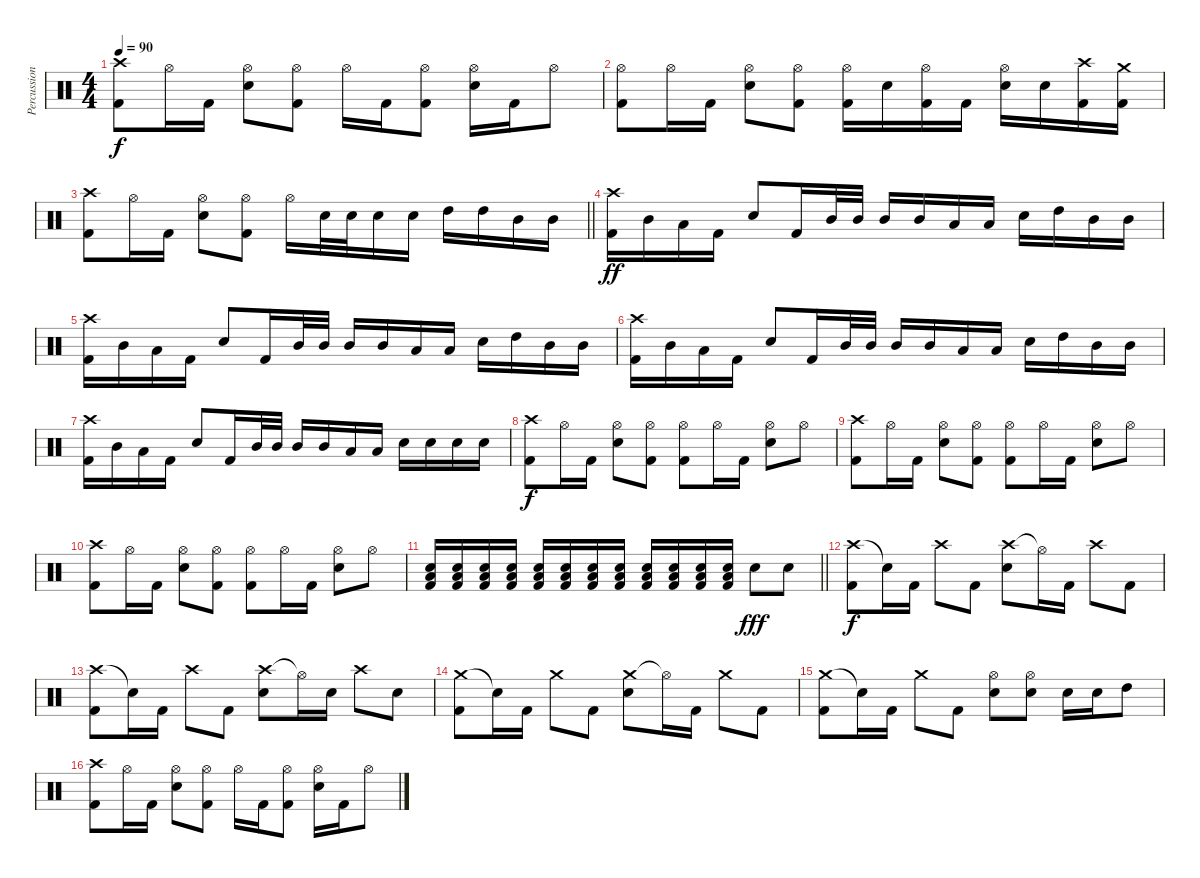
\track ("Percussion" "Percussion") {instrument percussion}
\staff {score}
\articulation defaults
\ts (4 4)
\tempo 90
\clef neutral
\ks c
("Crash high (hit)" "Kick (hit) 2").8{dy f} "Hi-Hat (open)".16 "Kick (hit) 2".16 ("Hi-Hat (open)" "Snare (hit) 2").8 ("Hi-Hat (open)" "Kick (hit) 2").8 "Hi-Hat (open)".16 "Kick (hit) 2".16 ("Hi-Hat (open)" "Kick (hit) 2").8 ("Hi-Hat (open)" "Snare (hit) 2").16 "Kick (hit) 2".16 "Hi-Hat (open)".8 |
("Hi-Hat (open)" "Kick (hit) 2").8 "Hi-Hat (open)".16 "Kick (hit) 2".16 ("Hi-Hat (open)" "Snare (hit) 2").8 ("Hi-Hat (open)" "Kick (hit) 2").8 ("Hi-Hat (open)" "Kick (hit) 2").16 "Snare (hit) 2".16 ("Hi-Hat (open)" "Kick (hit) 2").16 "Kick (hit) 2".16 ("Hi-Hat (open)" "Snare (hit) 2").16 "Snare (hit) 2".16 ("Crash high (hit)" "Kick (hit) 2").16 ("Crash medium (hit)" "Kick (hit) 2").16 |
\barLineRight lightlight
("Crash high (hit)" "Kick (hit) 2").8 "Hi-Hat (open)".16 "Kick (hit) 2".16 ("Hi-Hat (open)" "Snare (hit) 2").8 ("Hi-Hat (open)" "Kick (hit) 2").8 "Hi-Hat (open)".16 "Snare (hit) 2".32 "Snare (hit) 2".32 "Snare (hit) 2".16 "Snare (hit) 2".16 "High Tom (hit)".16 "High Tom (hit)".16 "Mid Tom (hit)".16 "Mid Tom (hit)".16 |
("Crash high (hit)" "Kick (hit) 2").16{dy ff} "Mid Tom (hit)".16 "Low Floor Tom (hit)".16 "Kick (hit) 2".16 "Snare (hit) 2".8 "Kick (hit) 2".16 "Mid Tom (hit)".32 "Mid Tom (hit)".32 "Mid Tom (hit)".16 "Mid Tom (hit)".16 "Low Floor Tom (hit)".16 "Low Floor Tom (hit)".16 "Snare (hit) 2".16 "High Tom (hit)".16 "Mid Tom (hit)".16 "Mid Tom (hit)".16 |
("Crash high (hit)" "Kick (hit) 2").16 "Mid Tom (hit)".16 "Low Floor Tom (hit)".16 "Kick (hit) 2".16 "Snare (hit) 2".8 "Kick (hit) 2".16 "Mid Tom (hit)".32 "Mid Tom (hit)".32 "Mid Tom (hit)".16 "Mid Tom (hit)".16 "Low Floor Tom (hit)".16 "Low Floor Tom (hit)".16 "Snare (hit) 2".16 "High Tom (hit)".16 "Mid Tom (hit)".16 "Mid Tom (hit)".16 |
("Crash high (hit)" "Kick (hit) 2").16 "Mid Tom (hit)".16 "Low Floor Tom (hit)".16 "Kick (hit) 2".16 "Snare (hit) 2".8 "Kick (hit) 2".16 "Mid Tom (hit)".32 "Mid Tom (hit)".32 "Mid Tom (hit)".16 "Mid Tom (hit)".16 "Low Floor Tom (hit)".16 "Low Floor Tom (hit)".16 "Snare (hit) 2".16 "High Tom (hit)".16 "Mid Tom (hit)".16 "Mid Tom (hit)".16 |
("Crash high (hit)" "Kick (hit) 2").16 "Mid Tom (hit)".16 "Low Floor Tom (hit)".16 "Kick (hit) 2".16 "Snare (hit) 2".8 "Kick (hit) 2".16 "Mid Tom (hit)".32 "Mid Tom (hit)".32 "Mid Tom (hit)".16 "Mid Tom (hit)".16 "Low Floor Tom (hit)".16 "Low Floor Tom (hit)".16 "Snare (hit) 2".16 "Snare (hit) 2".16 "Snare (hit) 2".16 "Snare (hit) 2".16 |
("Crash high (hit)" "Kick (hit) 2").8{dy f} "Hi-Hat (open)".16 "Kick (hit) 2".16 ("Hi-Hat (open)" "Snare (hit) 2").8 ("Hi-Hat (open)" "Kick (hit) 2").8 ("Hi-Hat (open)" "Kick (hit) 2").8 "Hi-Hat (open)".16 "Kick (hit) 2".16 ("Hi-Hat (open)" "Snare (hit) 2").8 "Hi-Hat (open)".8 |
("Crash high (hit)" "Kick (hit) 2").8 "Hi-Hat (open)".16 "Kick (hit) 2".16 ("Hi-Hat (open)" "Snare (hit) 2").8 ("Hi-Hat (open)" "Kick (hit) 2").8 ("Hi-Hat (open)" "Kick (hit) 2").8 "Hi-Hat (open)".16 "Kick (hit) 2".16 ("Hi-Hat (open)" "Snare (hit) 2").8 "Hi-Hat (open)".8 |
("Crash high (hit)" "Kick (hit) 2").8 "Hi-Hat (open)".16 "Kick (hit) 2".16 ("Hi-Hat (open)" "Snare (hit) 2").8 ("Hi-Hat (open)" "Kick (hit) 2").8 ("Hi-Hat (open)" "Kick (hit) 2").8 "Hi-Hat (open)".16 "Kick (hit) 2".16 ("Hi-Hat (open)" "Snare (hit) 2").8 "Hi-Hat (open)".8 |
\barLineRight lightlight
("Snare (hit) 2" "Low Floor Tom (hit)" "Kick (hit) 2").16 ("Snare (hit) 2" "Low Floor Tom (hit)" "Kick (hit) 2").16 ("Snare (hit) 2" "Low Floor Tom (hit)" "Kick (hit) 2").16 ("Snare (hit) 2" "Low Floor Tom (hit)" "Kick (hit) 2").16 ("Snare (hit) 2" "Low Floor Tom (hit)" "Kick (hit) 2").16 ("Snare (hit) 2" "Low Floor Tom (hit)" "Kick (hit) 2").16 ("Snare (hit) 2" "Low Floor Tom (hit)" "Kick (hit) 2").16 ("Snare (hit) 2" "Low Floor Tom (hit)" "Kick (hit) 2").16 ("Snare (hit) 2" "Low Floor Tom (hit)" "Kick (hit) 2").16 ("Snare (hit) 2" "Low Floor Tom (hit)" "Kick (hit) 2").16 ("Snare (hit) 2" "Low Floor Tom (hit)" "Kick (hit) 2").16 ("Snare (hit) 2" "Low Floor Tom (hit)" "Kick (hit) 2").16 "Snare (hit) 2".8{dy fff} "Snare (hit) 2".8 |
("Crash high (hit)" "Kick (hit) 2").8{dy f} "Snare (hit)"{t}.16 "Kick (hit) 2".16 "Crash high (hit)".8 "Kick (hit) 2".8 ("Crash high (hit)" "Snare (hit) 2").8 "Hi-Hat (open)"{t}.16 "Kick (hit) 2".16 "Crash high (hit)".8 "Kick (hit) 2".8 |
("Crash high (hit)" "Kick (hit) 2").8 "Snare (hit)"{t}.16 "Kick (hit) 2".16 "Crash high (hit)".8 "Kick (hit) 2".8 ("Crash high (hit)" "Snare (hit) 2").8 "Hi-Hat (open)"{t}.16 "Snare (hit) 2".16 "Crash high (hit)".8 "Snare (hit) 2".8 |
("Crash medium (hit)" "Kick (hit) 2").8 "Snare (hit)"{t}.16 "Kick (hit) 2".16 "Crash medium (hit)".8 "Kick (hit) 2".8 ("Crash medium (hit)" "Snare (hit) 2").8 "Hi-Hat (open)"{t}.16 "Kick (hit) 2".16 "Crash medium (hit)".8 "Kick (hit) 2".8 |
("Crash medium (hit)" "Kick (hit) 2").8 "Snare (hit)"{t}.16 "Kick (hit) 2".16 "Crash medium (hit)".8 "Kick (hit) 2".8 ("Hi-Hat (open)" "Snare (hit) 2").8 ("Hi-Hat (open)" "Snare (hit) 2").8 "Snare (hit) 2".16 "Snare (hit) 2".16 "High Tom (hit)".8 |
("Crash high (hit)" "Kick (hit) 2").8 "Hi-Hat (open)".16 "Kick (hit) 2".16 ("Hi-Hat (open)" "Snare (hit) 2").8 ("Hi-Hat (open)" "Kick (hit) 2").8 "Hi-Hat (open)".16 "Kick (hit) 2".16 ("Hi-Hat (open)" "Kick (hit) 2").8 ("Hi-Hat (open)" "Snare (hit) 2").16 "Kick (hit) 2".16 "Hi-Hat (open)".8
